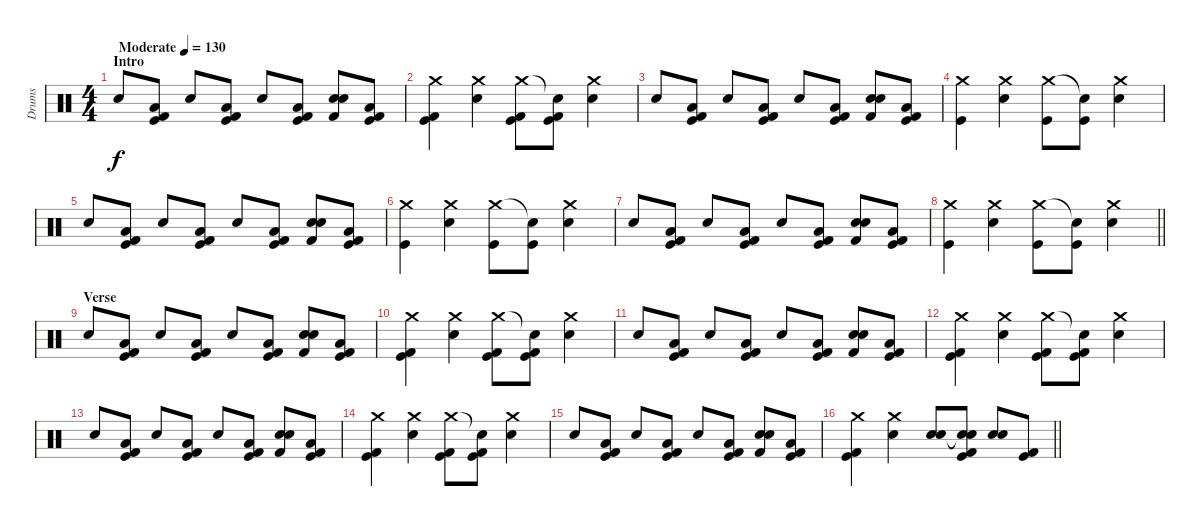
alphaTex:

\track ("Drums" "Drums") {instrument percussion}
\staff {score}
\articulation defaults
\ts (4 4)
\section ("" "Intro")
\tempo (130 "Moderate")
\clef neutral
\ks c "Snare (hit) 2".8{dy f}
("Low Floor Tom (hit)" "Kick (hit)" "Kick (hit) 2").8 "Snare (hit) 2".8 ("Low Floor Tom (hit)" "Kick (hit)" "Kick (hit) 2").8 "Snare (hit) 2".8 ("Low Floor Tom (hit)" "Kick (hit)" "Kick (hit) 2").8 ("Electric Snare (hit)" "Snare (hit) 2" "Kick (hit) 2").8 ("Low Floor Tom (hit)" "Kick (hit)" "Kick (hit) 2").8 |
("Crash medium (hit)" "Kick (hit)" "Kick (hit) 2").4 ("Crash medium (hit)" "Snare (hit) 2").4 ("Crash medium (hit)" "Kick (hit)" "Kick (hit) 2").8 ("Snare (hit)"{t} "Kick (hit)" "Kick (hit) 2").8 ("Crash medium (hit)" "Snare (hit) 2").4 |
"Snare (hit) 2".8 ("Low Floor Tom (hit)" "Kick (hit)" "Kick (hit) 2").8 "Snare (hit) 2".8 ("Low Floor Tom (hit)" "Kick (hit)" "Kick (hit) 2").8 "Snare (hit) 2".8 ("Low Floor Tom (hit)" "Kick (hit)" "Kick (hit) 2").8 ("Electric Snare (hit)" "Snare (hit) 2" "Kick (hit) 2").8 ("Low Floor Tom (hit)" "Kick (hit)" "Kick (hit) 2").8 |
("Crash medium (hit)" "Kick (hit)").4 ("Crash medium (hit)" "Snare (hit) 2").4 ("Crash medium (hit)" "Kick (hit)").8 ("Snare (hit)"{t} "Kick (hit)").8 ("Crash medium (hit)" "Snare (hit) 2").4 |
"Snare (hit) 2".8 ("Low Floor Tom (hit)" "Kick (hit)" "Kick (hit) 2").8 "Snare (hit) 2".8 ("Low Floor Tom (hit)" "Kick (hit)" "Kick (hit) 2").8 "Snare (hit) 2".8 ("Low Floor Tom (hit)" "Kick (hit)" "Kick (hit) 2").8 ("Electric Snare (hit)" "Snare (hit) 2" "Kick (hit) 2").8 ("Low Floor Tom (hit)" "Kick (hit)" "Kick (hit) 2").8 |
("Crash medium (hit)" "Kick (hit)").4 ("Crash medium (hit)" "Snare (hit) 2").4 ("Crash medium (hit)" "Kick (hit)").8 ("Snare (hit)"{t} "Kick (hit)").8 ("Crash medium (hit)" "Snare (hit) 2").4 |
"Snare (hit) 2".8 ("Low Floor Tom (hit)" "Kick (hit)" "Kick (hit) 2").8 "Snare (hit) 2".8 ("Low Floor Tom (hit)" "Kick (hit)" "Kick (hit) 2").8 "Snare (hit) 2".8 ("Low Floor Tom (hit)" "Kick (hit)" "Kick (hit) 2").8 ("Electric Snare (hit)" "Snare (hit) 2" "Kick (hit) 2").8 ("Low Floor Tom (hit)" "Kick (hit)" "Kick (hit) 2").8 |
\barLineRight lightlight
("Crash medium (hit)" "Kick (hit)").4 ("Crash medium (hit)" "Snare (hit) 2").4 ("Crash medium (hit)" "Kick (hit)").8 ("Snare (hit)"{t} "Kick (hit)").8 ("Crash medium (hit)" "Snare (hit) 2").4 |
\section ("" "Verse")
"Snare (hit) 2".8 ("Low Floor Tom (hit)" "Kick (hit)" "Kick (hit) 2").8 "Snare (hit) 2".8 ("Low Floor Tom (hit)" "Kick (hit)" "Kick (hit) 2").8 "Snare (hit) 2".8 ("Low Floor Tom (hit)" "Kick (hit)" "Kick (hit) 2").8 ("Electric Snare (hit)" "Snare (hit) 2" "Kick (hit) 2").8 ("Low Floor Tom (hit)" "Kick (hit)" "Kick (hit) 2").8 |
("Crash medium (hit)" "Kick (hit)" "Kick (hit) 2").4 ("Crash medium (hit)" "Snare (hit) 2").4 ("Crash medium (hit)" "Kick (hit)" "Kick (hit) 2").8 ("Snare (hit)"{t} "Kick (hit)" "Kick (hit) 2").8 ("Crash medium (hit)" "Snare (hit) 2").4 |
"Snare (hit) 2".8 ("Low Floor Tom (hit)" "Kick (hit)" "Kick (hit) 2").8 "Snare (hit) 2".8 ("Low Floor Tom (hit)" "Kick (hit)" "Kick (hit) 2").8 "Snare (hit) 2".8 ("Low Floor Tom (hit)" "Kick (hit)" "Kick (hit) 2").8 ("Electric Snare (hit)" "Snare (hit) 2" "Kick (hit) 2").8 ("Low Floor Tom (hit)" "Kick (hit)" "Kick (hit) 2").8 |
("Crash medium (hit)" "Kick (hit)" "Kick (hit) 2").4 ("Crash medium (hit)" "Snare (hit) 2").4 ("Crash medium (hit)" "Kick (hit)" "Kick (hit) 2").8 ("Snare (hit)"{t} "Kick (hit)" "Kick (hit) 2").8 ("Crash medium (hit)" "Snare (hit) 2").4 |
"Snare (hit) 2".8 ("Low Floor Tom (hit)" "Kick (hit)" "Kick (hit) 2").8 "Snare (hit) 2".8 ("Low Floor Tom (hit)" "Kick (hit)" "Kick (hit) 2").8 "Snare (hit) 2".8 ("Low Floor Tom (hit)" "Kick (hit)" "Kick (hit) 2").8 ("Electric Snare (hit)" "Snare (hit) 2" "Kick (hit) 2").8 ("Low Floor Tom (hit)" "Kick (hit)" "Kick (hit) 2").8 |
("Crash medium (hit)" "Kick (hit)" "Kick (hit) 2").4 ("Crash medium (hit)" "Snare (hit) 2").4 ("Crash medium (hit)" "Kick (hit)" "Kick (hit) 2").8 ("Snare (hit)"{t} "Kick (hit)" "Kick (hit) 2").8 ("Crash medium (hit)" "Snare (hit) 2").4 |
"Snare (hit) 2".8 ("Low Floor Tom (hit)" "Kick (hit)" "Kick (hit) 2").8 "Snare (hit) 2".8 ("Low Floor Tom (hit)" "Kick (hit)" "Kick (hit) 2").8 "Snare (hit) 2".8 ("Low Floor Tom (hit)" "Kick (hit)" "Kick (hit) 2").8 ("Electric Snare (hit)" "Snare (hit) 2" "Kick (hit) 2").8 ("Low Floor Tom (hit)" "Kick (hit)" "Kick (hit) 2").8 |
\barLineRight lightlight
("Crash medium (hit)" "Kick (hit)" "Kick (hit) 2").4 ("Crash medium (hit)" "Snare (hit) 2").4 ("Electric Snare (hit)" "Snare (hit) 2").8{bd 120} ("Snare (hit)"{t} "Snare (hit)"{t} "Kick (hit)" "Kick (hit) 2").8 ("Electric Snare (hit)" "Snare (hit) 2").8{bd 120} ("Kick (hit)" "Kick (hit) 2").8
